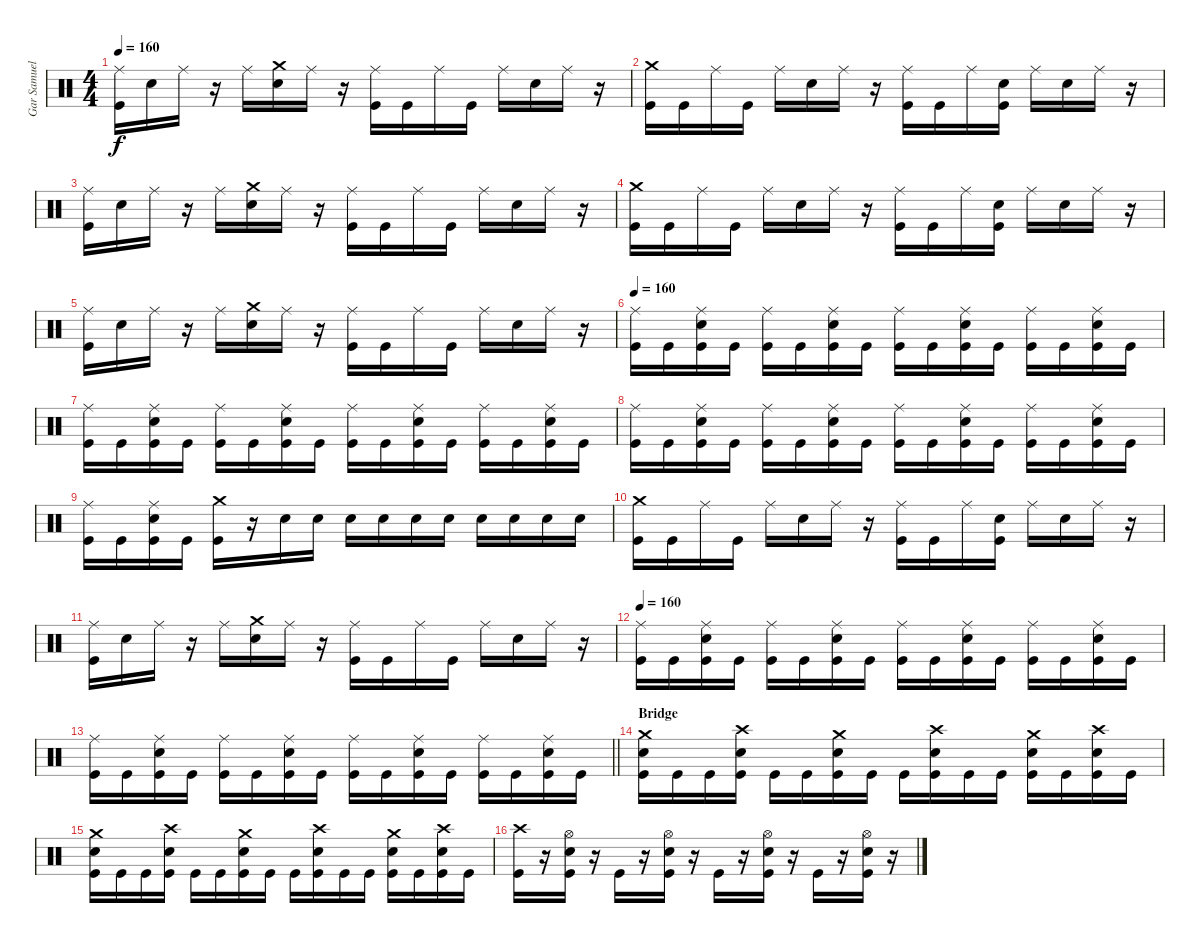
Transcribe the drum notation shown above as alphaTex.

\track ("Gar Samuelson" "Gar Samuel") {instrument percussion}
\staff {score}
\articulation defaults
\ts (4 4)
\tempo 160
\clef neutral
\ks c
("Ride (middle)" "Kick (hit)").16{dy f} "Snare (hit) 2".16 "Ride (middle)".16 r.16 "Ride (middle)".16 ("Crash medium (hit)" "Snare (hit) 2").16 "Ride (middle)".16 r.16 ("Ride (middle)" "Kick (hit)").16 "Kick (hit)".16 "Ride (middle)".16 "Kick (hit)".16 "Ride (middle)".16 "Snare (hit) 2".16 "Ride (middle)".16 r.16 |
("Crash medium (hit)" "Kick (hit)").16 "Kick (hit)".16 "Ride (middle)".16 "Kick (hit)".16 "Ride (middle)".16 "Snare (hit) 2".16 "Ride (middle)".16 r.16 ("Ride (middle)" "Kick (hit)").16 "Kick (hit)".16 "Ride (middle)".16 ("Snare (hit) 2" "Kick (hit)").16 "Ride (middle)".16 "Snare (hit) 2".16 "Ride (middle)".16 r.16 |
("Ride (middle)" "Kick (hit)").16 "Snare (hit) 2".16 "Ride (middle)".16 r.16 "Ride (middle)".16 ("Crash medium (hit)" "Snare (hit) 2").16 "Ride (middle)".16 r.16 ("Ride (middle)" "Kick (hit)").16 "Kick (hit)".16 "Ride (middle)".16 "Kick (hit)".16 "Ride (middle)".16 "Snare (hit) 2".16 "Ride (middle)".16 r.16 |
("Crash medium (hit)" "Kick (hit)").16 "Kick (hit)".16 "Ride (middle)".16 "Kick (hit)".16 "Ride (middle)".16 "Snare (hit) 2".16 "Ride (middle)".16 r.16 ("Ride (middle)" "Kick (hit)").16 "Kick (hit)".16 "Ride (middle)".16 ("Snare (hit) 2" "Kick (hit)").16 "Ride (middle)".16 "Snare (hit) 2".16 "Ride (middle)".16 r.16 |
("Ride (middle)" "Kick (hit)").16 "Snare (hit) 2".16 "Ride (middle)".16 r.16 "Ride (middle)".16 ("Crash medium (hit)" "Snare (hit) 2").16 "Ride (middle)".16 r.16 ("Ride (middle)" "Kick (hit)").16 "Kick (hit)".16 "Ride (middle)".16 "Kick (hit)".16 "Ride (middle)".16 "Snare (hit) 2".16 "Ride (middle)".16 r.16 |
\tempo 160
("Ride (middle)" "Kick (hit)").16 "Kick (hit)".16 ("Ride (middle)" "Snare (hit) 2" "Kick (hit)").16 "Kick (hit)".16 ("Ride (middle)" "Kick (hit)").16 "Kick (hit)".16 ("Ride (middle)" "Snare (hit) 2" "Kick (hit)").16 "Kick (hit)".16 ("Ride (middle)" "Kick (hit)").16 "Kick (hit)".16 ("Ride (middle)" "Snare (hit) 2" "Kick (hit)").16 "Kick (hit)".16 ("Ride (middle)" "Kick (hit)").16 "Kick (hit)".16 ("Ride (middle)" "Snare (hit) 2" "Kick (hit)").16 "Kick (hit)".16 |
("Ride (middle)" "Kick (hit)").16 "Kick (hit)".16 ("Ride (middle)" "Snare (hit) 2" "Kick (hit)").16 "Kick (hit)".16 ("Ride (middle)" "Kick (hit)").16 "Kick (hit)".16 ("Ride (middle)" "Snare (hit) 2" "Kick (hit)").16 "Kick (hit)".16 ("Ride (middle)" "Kick (hit)").16 "Kick (hit)".16 ("Ride (middle)" "Snare (hit) 2" "Kick (hit)").16 "Kick (hit)".16 ("Ride (middle)" "Kick (hit)").16 "Kick (hit)".16 ("Ride (middle)" "Snare (hit) 2" "Kick (hit)").16 "Kick (hit)".16 |
("Ride (middle)" "Kick (hit)").16 "Kick (hit)".16 ("Ride (middle)" "Snare (hit) 2" "Kick (hit)").16 "Kick (hit)".16 ("Ride (middle)" "Kick (hit)").16 "Kick (hit)".16 ("Ride (middle)" "Snare (hit) 2" "Kick (hit)").16 "Kick (hit)".16 ("Ride (middle)" "Kick (hit)").16 "Kick (hit)".16 ("Ride (middle)" "Snare (hit) 2" "Kick (hit)").16 "Kick (hit)".16 ("Ride (middle)" "Kick (hit)").16 "Kick (hit)".16 ("Ride (middle)" "Snare (hit) 2" "Kick (hit)").16 "Kick (hit)".16 |
("Ride (middle)" "Kick (hit)").16 "Kick (hit)".16 ("Ride (middle)" "Snare (hit) 2" "Kick (hit)").16 "Kick (hit)".16 ("Crash medium (hit)" "Kick (hit)").16 r.16 "Snare (hit) 2".16 "Snare (hit) 2".16 "Snare (hit) 2".16 "Snare (hit) 2".16 "Snare (hit) 2".16 "Snare (hit) 2".16 "Snare (hit) 2".16 "Snare (hit) 2".16 "Snare (hit) 2".16 "Snare (hit) 2".16 |
("Crash medium (hit)" "Kick (hit)").16 "Kick (hit)".16 "Ride (middle)".16 "Kick (hit)".16 "Ride (middle)".16 "Snare (hit) 2".16 "Ride (middle)".16 r.16 ("Ride (middle)" "Kick (hit)").16 "Kick (hit)".16 "Ride (middle)".16 ("Snare (hit) 2" "Kick (hit)").16 "Ride (middle)".16 "Snare (hit) 2".16 "Ride (middle)".16 r.16 |
("Ride (middle)" "Kick (hit)").16 "Snare (hit) 2".16 "Ride (middle)".16 r.16 "Ride (middle)".16 ("Crash medium (hit)" "Snare (hit) 2").16 "Ride (middle)".16 r.16 ("Ride (middle)" "Kick (hit)").16 "Kick (hit)".16 "Ride (middle)".16 "Kick (hit)".16 "Ride (middle)".16 "Snare (hit) 2".16 "Ride (middle)".16 r.16 |
\tempo 160
("Ride (middle)" "Kick (hit)").16 "Kick (hit)".16 ("Ride (middle)" "Snare (hit) 2" "Kick (hit)").16 "Kick (hit)".16 ("Ride (middle)" "Kick (hit)").16 "Kick (hit)".16 ("Ride (middle)" "Snare (hit) 2" "Kick (hit)").16 "Kick (hit)".16 ("Ride (middle)" "Kick (hit)").16 "Kick (hit)".16 ("Ride (middle)" "Snare (hit) 2" "Kick (hit)").16 "Kick (hit)".16 ("Ride (middle)" "Kick (hit)").16 "Kick (hit)".16 ("Ride (middle)" "Snare (hit) 2" "Kick (hit)").16 "Kick (hit)".16 |
\barLineRight lightlight
("Ride (middle)" "Kick (hit)").16 "Kick (hit)".16 ("Ride (middle)" "Snare (hit) 2" "Kick (hit)").16 "Kick (hit)".16 ("Ride (middle)" "Kick (hit)").16 "Kick (hit)".16 ("Ride (middle)" "Snare (hit) 2" "Kick (hit)").16 "Kick (hit)".16 ("Ride (middle)" "Kick (hit)").16 "Kick (hit)".16 ("Ride (middle)" "Snare (hit) 2" "Kick (hit)").16 "Kick (hit)".16 ("Ride (middle)" "Kick (hit)").16 "Kick (hit)".16 ("Ride (middle)" "Snare (hit) 2" "Kick (hit)").16 "Kick (hit)".16 |
\section ("" "Bridge")
("Crash medium (hit)" "Snare (hit) 2" "Kick (hit)").16 "Kick (hit)".16 "Kick (hit)".16 ("Crash high (hit)" "Snare (hit) 2" "Kick (hit)").16 "Kick (hit)".16 "Kick (hit)".16 ("Crash medium (hit)" "Snare (hit) 2" "Kick (hit)").16 "Kick (hit)".16 "Kick (hit)".16 ("Crash high (hit)" "Snare (hit) 2" "Kick (hit)").16 "Kick (hit)".16 "Kick (hit)".16 ("Crash medium (hit)" "Snare (hit) 2" "Kick (hit)").16 "Kick (hit)".16 ("Crash high (hit)" "Snare (hit) 2" "Kick (hit)").16 "Kick (hit)".16 |
("Crash medium (hit)" "Snare (hit) 2" "Kick (hit)").16 "Kick (hit)".16 "Kick (hit)".16 ("Crash high (hit)" "Snare (hit) 2" "Kick (hit)").16 "Kick (hit)".16 "Kick (hit)".16 ("Crash medium (hit)" "Snare (hit) 2" "Kick (hit)").16 "Kick (hit)".16 "Kick (hit)".16 ("Crash high (hit)" "Snare (hit) 2" "Kick (hit)").16 "Kick (hit)".16 "Kick (hit)".16 ("Crash medium (hit)" "Snare (hit) 2" "Kick (hit)").16 "Kick (hit)".16 ("Crash high (hit)" "Snare (hit) 2" "Kick (hit)").16 "Kick (hit)".16 |
("Crash high (hit)" "Kick (hit)").16 r.16 ("Hi-Hat (open)" "Snare (hit) 2" "Kick (hit)").16 r.16 "Kick (hit)".16 r.16 ("Hi-Hat (open)" "Snare (hit) 2" "Kick (hit)").16 r.16 "Kick (hit)".16 r.16 ("Hi-Hat (open)" "Snare (hit) 2" "Kick (hit)").16 r.16 "Kick (hit)".16 r.16 ("Hi-Hat (open)" "Snare (hit) 2" "Kick (hit)").16 r.16
